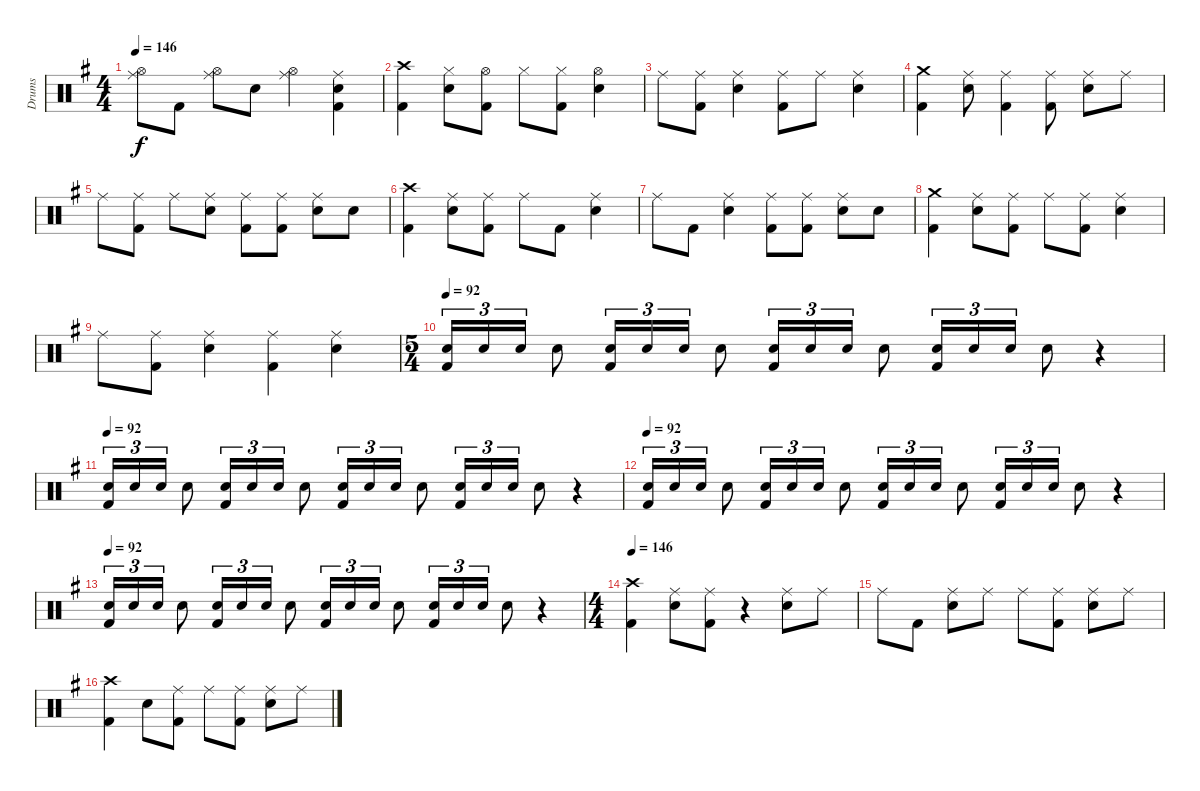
\track ("Drums" "Drums") {instrument percussion}
\staff {score}
\articulation defaults
\ts (4 4)
\tempo 146
\clef neutral
\ks g
("Hi-Hat (open)" "Ride (middle)").8{dy f} "Kick (hit) 2".8 ("Hi-Hat (open)" "Ride (middle)").8 "Snare (hit) 2".8 ("Hi-Hat (open)" "Ride (middle)").4 ("Kick (hit) 2" "Snare (hit) 2" "Ride (middle)").4 |
("Kick (hit) 2" "Crash high (hit)").4 ("Snare (hit) 2" "Hi-Hat (closed)").8 ("Kick (hit) 2" "Hi-Hat (open)").8 "Hi-Hat (closed)".8 ("Kick (hit) 2" "Hi-Hat (closed)").8 ("Snare (hit) 2" "Hi-Hat (open)").4 |
"Ride (middle)".8 ("Kick (hit) 2" "Ride (middle)").8 ("Snare (hit) 2" "Ride (middle)").4 ("Kick (hit) 2" "Ride (middle)").8 "Ride (middle)".8 ("Snare (hit) 2" "Ride (middle)").4 |
("Kick (hit) 2" "Crash medium (hit)").4 ("Snare (hit) 2" "Ride (middle)").8 ("Kick (hit) 2" "Ride (middle)").4 ("Kick (hit) 2" "Ride (middle)").8 ("Snare (hit) 2" "Ride (middle)").8 "Ride (middle)".8 |
"Ride (middle)".8 ("Kick (hit) 2" "Ride (middle)").8 "Ride (middle)".8 ("Snare (hit) 2" "Ride (middle)").8 ("Kick (hit) 2" "Ride (middle)").8 ("Kick (hit) 2" "Ride (middle)").8 ("Snare (hit) 2" "Ride (middle)").8 "Snare (hit) 2".8 |
("Kick (hit) 2" "Crash high (hit)").4 ("Snare (hit) 2" "Ride (middle)").8 ("Kick (hit) 2" "Ride (middle)").8 "Ride (middle)".8 "Kick (hit) 2".8 ("Snare (hit) 2" "Ride (middle)").4 |
"Ride (middle)".8 "Kick (hit) 2".8 ("Snare (hit) 2" "Ride (middle)").4 ("Kick (hit) 2" "Ride (middle)").8 ("Kick (hit) 2" "Ride (middle)").8 ("Snare (hit) 2" "Ride (middle)").8 "Snare (hit) 2".8 |
("Kick (hit) 2" "Crash medium (hit)").4 ("Snare (hit) 2" "Ride (middle)").8 ("Kick (hit) 2" "Ride (middle)").8 "Ride (middle)".8 ("Kick (hit) 2" "Ride (middle)").8 ("Snare (hit) 2" "Ride (middle)").4 |
"Ride (middle)".8 ("Kick (hit) 2" "Ride (middle)").8 ("Snare (hit) 2" "Ride (middle)").4 ("Kick (hit) 2" "Ride (middle)").4 ("Snare (hit) 2" "Ride (middle)").4 |
\ts (5 4)
\tempo 92
("Kick (hit) 2" "Snare (hit) 2").16{tu (3 2)} "Snare (hit) 2".16{tu (3 2)} "Snare (hit) 2".16{tu (3 2)} "Snare (hit) 2".8 ("Kick (hit) 2" "Snare (hit) 2").16{tu (3 2)} "Snare (hit) 2".16{tu (3 2)} "Snare (hit) 2".16{tu (3 2)} "Snare (hit) 2".8 ("Kick (hit) 2" "Snare (hit) 2").16{tu (3 2)} "Snare (hit) 2".16{tu (3 2)} "Snare (hit) 2".16{tu (3 2)} "Snare (hit) 2".8 ("Kick (hit) 2" "Snare (hit) 2").16{tu (3 2)} "Snare (hit) 2".16{tu (3 2)} "Snare (hit) 2".16{tu (3 2)} "Snare (hit) 2".8 r.4 |
\tempo 92
("Kick (hit) 2" "Snare (hit) 2").16{tu (3 2)} "Snare (hit) 2".16{tu (3 2)} "Snare (hit) 2".16{tu (3 2)} "Snare (hit) 2".8 ("Kick (hit) 2" "Snare (hit) 2").16{tu (3 2)} "Snare (hit) 2".16{tu (3 2)} "Snare (hit) 2".16{tu (3 2)} "Snare (hit) 2".8 ("Kick (hit) 2" "Snare (hit) 2").16{tu (3 2)} "Snare (hit) 2".16{tu (3 2)} "Snare (hit) 2".16{tu (3 2)} "Snare (hit) 2".8 ("Kick (hit) 2" "Snare (hit) 2").16{tu (3 2)} "Snare (hit) 2".16{tu (3 2)} "Snare (hit) 2".16{tu (3 2)} "Snare (hit) 2".8 r.4 |
\tempo 92
("Kick (hit) 2" "Snare (hit) 2").16{tu (3 2)} "Snare (hit) 2".16{tu (3 2)} "Snare (hit) 2".16{tu (3 2)} "Snare (hit) 2".8 ("Kick (hit) 2" "Snare (hit) 2").16{tu (3 2)} "Snare (hit) 2".16{tu (3 2)} "Snare (hit) 2".16{tu (3 2)} "Snare (hit) 2".8 ("Kick (hit) 2" "Snare (hit) 2").16{tu (3 2)} "Snare (hit) 2".16{tu (3 2)} "Snare (hit) 2".16{tu (3 2)} "Snare (hit) 2".8 ("Kick (hit) 2" "Snare (hit) 2").16{tu (3 2)} "Snare (hit) 2".16{tu (3 2)} "Snare (hit) 2".16{tu (3 2)} "Snare (hit) 2".8 r.4 |
\tempo 92
("Kick (hit) 2" "Snare (hit) 2").16{tu (3 2)} "Snare (hit) 2".16{tu (3 2)} "Snare (hit) 2".16{tu (3 2)} "Snare (hit) 2".8 ("Kick (hit) 2" "Snare (hit) 2").16{tu (3 2)} "Snare (hit) 2".16{tu (3 2)} "Snare (hit) 2".16{tu (3 2)} "Snare (hit) 2".8 ("Kick (hit) 2" "Snare (hit) 2").16{tu (3 2)} "Snare (hit) 2".16{tu (3 2)} "Snare (hit) 2".16{tu (3 2)} "Snare (hit) 2".8 ("Kick (hit) 2" "Snare (hit) 2").16{tu (3 2)} "Snare (hit) 2".16{tu (3 2)} "Snare (hit) 2".16{tu (3 2)} "Snare (hit) 2".8 r.4 |
\ts (4 4)
\tempo 146
("Kick (hit) 2" "Crash high (hit)").4 ("Snare (hit) 2" "Ride (middle)").8 ("Kick (hit) 2" "Ride (middle)").8 r.4 ("Snare (hit) 2" "Ride (middle)").8 "Ride (middle)".8 |
"Ride (middle)".8 "Kick (hit) 2".8 ("Snare (hit) 2" "Ride (middle)").8 "Ride (middle)".8 "Ride (middle)".8 ("Kick (hit) 2" "Ride (middle)").8 ("Snare (hit) 2" "Ride (middle)").8 "Ride (middle)".8 |
("Kick (hit) 2" "Crash high (hit)").4 "Snare (hit) 2".8 ("Kick (hit) 2" "Ride (middle)").8 "Ride (middle)".8 ("Kick (hit) 2" "Ride (middle)").8 ("Snare (hit) 2" "Ride (middle)").8 "Ride (middle)".8
